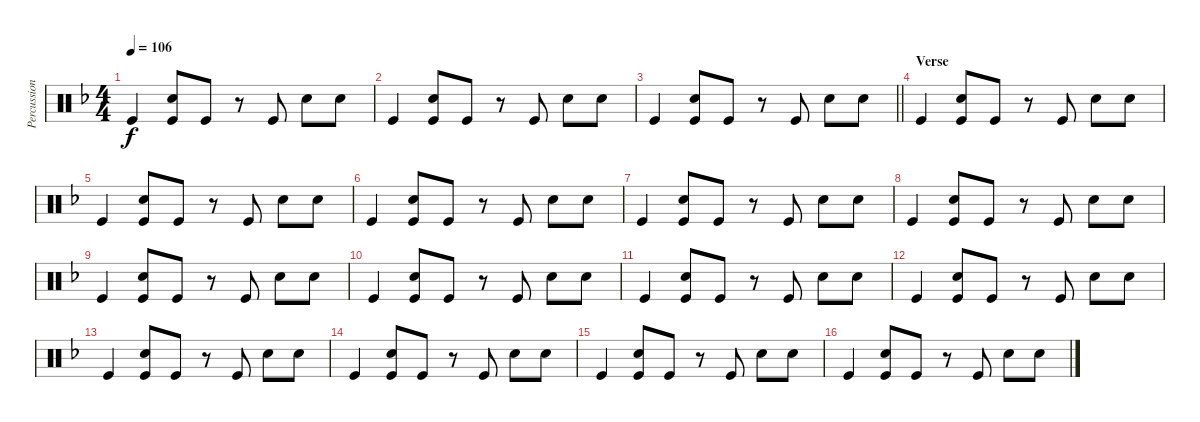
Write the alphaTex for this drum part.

\track ("Percussion" "Percussion") {instrument percussion}
\staff {score}
\articulation defaults
\ts (4 4)
\tempo 106
\clef neutral
\ks dminor "Kick (hit)".4{dy f}
("Hand Clap (hit)" "Kick (hit)").8 "Kick (hit)".8 r.8 "Kick (hit)".8 "Hand Clap (hit)".8 "Hand Clap (hit)".8 |
"Kick (hit)".4 ("Hand Clap (hit)" "Kick (hit)").8 "Kick (hit)".8 r.8 "Kick (hit)".8 "Hand Clap (hit)".8 "Hand Clap (hit)".8 |
\barLineRight lightlight "Kick (hit)".4
("Hand Clap (hit)" "Kick (hit)").8 "Kick (hit)".8 r.8 "Kick (hit)".8 "Hand Clap (hit)".8 "Hand Clap (hit)".8 |
\section ("" "Verse")
"Kick (hit)".4 ("Hand Clap (hit)" "Kick (hit)").8 "Kick (hit)".8 r.8 "Kick (hit)".8 "Hand Clap (hit)".8 "Hand Clap (hit)".8 |
"Kick (hit)".4 ("Hand Clap (hit)" "Kick (hit)").8 "Kick (hit)".8 r.8 "Kick (hit)".8 "Hand Clap (hit)".8 "Hand Clap (hit)".8 |
"Kick (hit)".4 ("Hand Clap (hit)" "Kick (hit)").8 "Kick (hit)".8 r.8 "Kick (hit)".8 "Hand Clap (hit)".8 "Hand Clap (hit)".8 |
"Kick (hit)".4 ("Hand Clap (hit)" "Kick (hit)").8 "Kick (hit)".8 r.8 "Kick (hit)".8 "Hand Clap (hit)".8 "Hand Clap (hit)".8 |
"Kick (hit)".4 ("Hand Clap (hit)" "Kick (hit)").8 "Kick (hit)".8 r.8 "Kick (hit)".8 "Hand Clap (hit)".8 "Hand Clap (hit)".8 |
"Kick (hit)".4 ("Hand Clap (hit)" "Kick (hit)").8 "Kick (hit)".8 r.8 "Kick (hit)".8 "Hand Clap (hit)".8 "Hand Clap (hit)".8 |
"Kick (hit)".4 ("Hand Clap (hit)" "Kick (hit)").8 "Kick (hit)".8 r.8 "Kick (hit)".8 "Hand Clap (hit)".8 "Hand Clap (hit)".8 |
"Kick (hit)".4 ("Hand Clap (hit)" "Kick (hit)").8 "Kick (hit)".8 r.8 "Kick (hit)".8 "Hand Clap (hit)".8 "Hand Clap (hit)".8 |
"Kick (hit)".4 ("Hand Clap (hit)" "Kick (hit)").8 "Kick (hit)".8 r.8 "Kick (hit)".8 "Hand Clap (hit)".8 "Hand Clap (hit)".8 |
"Kick (hit)".4 ("Hand Clap (hit)" "Kick (hit)").8 "Kick (hit)".8 r.8 "Kick (hit)".8 "Hand Clap (hit)".8 "Hand Clap (hit)".8 |
"Kick (hit)".4 ("Hand Clap (hit)" "Kick (hit)").8 "Kick (hit)".8 r.8 "Kick (hit)".8 "Hand Clap (hit)".8 "Hand Clap (hit)".8 |
"Kick (hit)".4 ("Hand Clap (hit)" "Kick (hit)").8 "Kick (hit)".8 r.8 "Kick (hit)".8 "Hand Clap (hit)".8 "Hand Clap (hit)".8 |
"Kick (hit)".4 ("Hand Clap (hit)" "Kick (hit)").8 "Kick (hit)".8 r.8 "Kick (hit)".8 "Hand Clap (hit)".8 "Hand Clap (hit)".8
